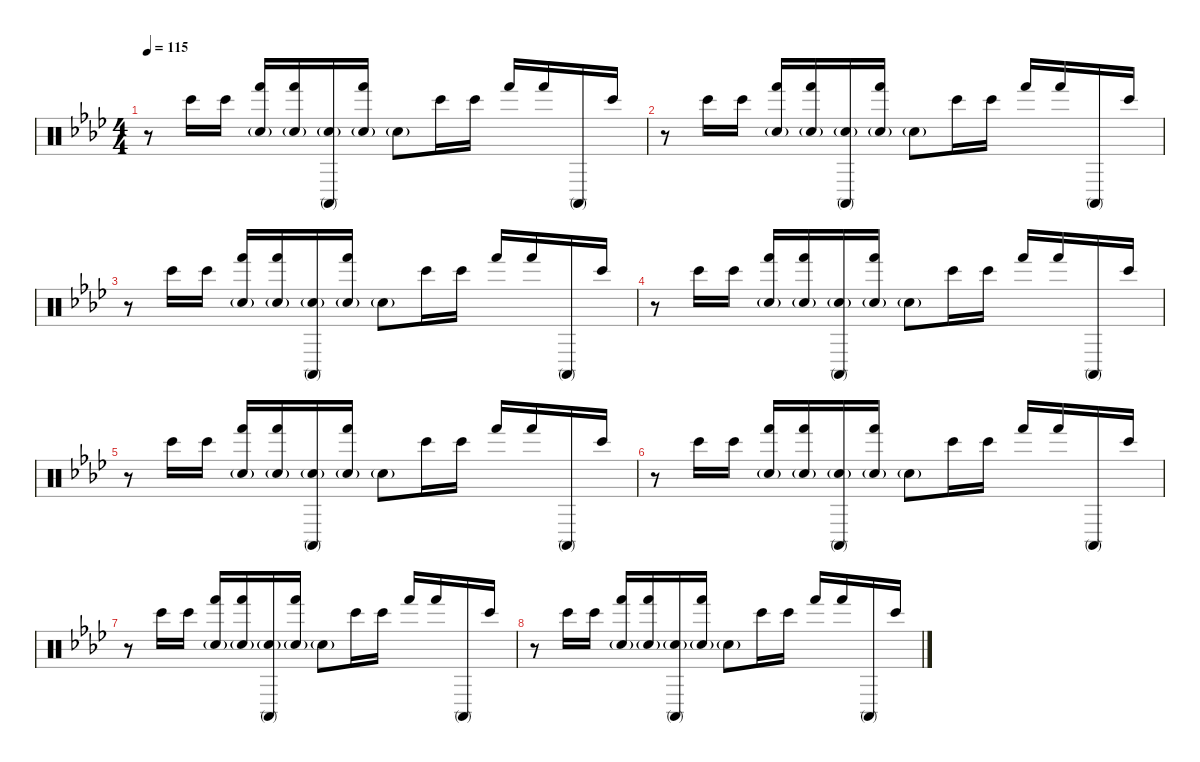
\defaultSystemsLayout 4
\hideDynamics
\bracketExtendMode nobrackets
\singleTrackTrackNamePolicy hidden
\multiTrackTrackNamePolicy hidden
\firstSystemTrackNameMode fullname
\firstSystemTrackNameOrientation horizontal
\otherSystemsTrackNameOrientation horizontal
\track ("Percussion" "drm.") {instrument percussion}
\staff {score}
\articulation defaults
\ts (4 4)
\tempo 115
\clef neutral
\ks ab
r.8{dy p beam Down} "Bongo High (hit)"{acc forcenatural}.16{beam Down} "Bongo High (hit)"{acc forcenatural}.16{beam Down} ("Snare (hit) 2"{g acc forcenatural} "Hand (hit)"{acc forcenatural}).16{beam Up} ("Snare (hit) 2"{g acc forcenatural} "Hand (hit)"{acc forcenatural}).16{beam Up} ("Snare (hit) 2"{g acc forcenatural} "Conga high (mute)"{acc forcenatural}).16{beam Up} ("Snare (hit) 2"{g acc forcenatural} "Hand (hit)"{acc forcenatural}).16{beam Up} "Snare (hit) 2"{g acc forcenatural}.8{dy mf beam Down} "Bongo High (hit)"{acc forcenatural}.16{dy p beam Down} "Bongo High (hit)"{acc forcenatural}.16{beam Down} "Hand (hit)"{acc forcenatural}.16{beam Up} "Hand (hit)"{acc forcenatural}.16{dy pp beam Up} "Conga high (mute)"{acc forcenatural}.16{beam Up} "Bongo High (hit)"{acc forcenatural}.16{dy p beam Up} |
r.8{beam Down} "Bongo High (hit)"{acc forcenatural}.16{beam Down} "Bongo High (hit)"{acc forcenatural}.16{beam Down} ("Snare (hit) 2"{g acc forcenatural} "Hand (hit)"{acc forcenatural}).16{beam Up} ("Snare (hit) 2"{g acc forcenatural} "Hand (hit)"{acc forcenatural}).16{beam Up} ("Snare (hit) 2"{g acc forcenatural} "Conga high (mute)"{acc forcenatural}).16{beam Up} ("Snare (hit) 2"{g acc forcenatural} "Hand (hit)"{acc forcenatural}).16{beam Up} "Snare (hit) 2"{g acc forcenatural}.8{dy mf beam Down} "Bongo High (hit)"{acc forcenatural}.16{dy p beam Down} "Bongo High (hit)"{acc forcenatural}.16{beam Down} "Hand (hit)"{acc forcenatural}.16{beam Up} "Hand (hit)"{acc forcenatural}.16{dy pp beam Up} "Conga high (mute)"{acc forcenatural}.16{beam Up} "Bongo High (hit)"{acc forcenatural}.16{dy p beam Up} |
r.8{beam Down} "Bongo High (hit)"{acc forcenatural}.16{beam Down} "Bongo High (hit)"{acc forcenatural}.16{beam Down} ("Snare (hit) 2"{g acc forcenatural} "Hand (hit)"{acc forcenatural}).16{beam Up} ("Snare (hit) 2"{g acc forcenatural} "Hand (hit)"{acc forcenatural}).16{beam Up} ("Snare (hit) 2"{g acc forcenatural} "Conga high (mute)"{acc forcenatural}).16{beam Up} ("Snare (hit) 2"{g acc forcenatural} "Hand (hit)"{acc forcenatural}).16{beam Up} "Snare (hit) 2"{g acc forcenatural}.8{dy mf beam Down} "Bongo High (hit)"{acc forcenatural}.16{dy p beam Down} "Bongo High (hit)"{acc forcenatural}.16{beam Down} "Hand (hit)"{acc forcenatural}.16{beam Up} "Hand (hit)"{acc forcenatural}.16{dy pp beam Up} "Conga high (mute)"{acc forcenatural}.16{beam Up} "Bongo High (hit)"{acc forcenatural}.16{dy p beam Up} |
r.8{beam Down} "Bongo High (hit)"{acc forcenatural}.16{beam Down} "Bongo High (hit)"{acc forcenatural}.16{beam Down} ("Snare (hit) 2"{g acc forcenatural} "Hand (hit)"{acc forcenatural}).16{beam Up} ("Snare (hit) 2"{g acc forcenatural} "Hand (hit)"{acc forcenatural}).16{beam Up} ("Snare (hit) 2"{g acc forcenatural} "Conga high (mute)"{acc forcenatural}).16{beam Up} ("Snare (hit) 2"{g acc forcenatural} "Hand (hit)"{acc forcenatural}).16{beam Up} "Snare (hit) 2"{g acc forcenatural}.8{dy mf beam Down} "Bongo High (hit)"{acc forcenatural}.16{dy p beam Down} "Bongo High (hit)"{acc forcenatural}.16{beam Down} "Hand (hit)"{acc forcenatural}.16{beam Up} "Hand (hit)"{acc forcenatural}.16{dy pp beam Up} "Conga high (mute)"{acc forcenatural}.16{beam Up} "Bongo High (hit)"{acc forcenatural}.16{dy p beam Up} |
r.8{beam Down} "Bongo High (hit)"{acc forcenatural}.16{beam Down} "Bongo High (hit)"{acc forcenatural}.16{beam Down} ("Snare (hit) 2"{g acc forcenatural} "Hand (hit)"{acc forcenatural}).16{beam Up} ("Snare (hit) 2"{g acc forcenatural} "Hand (hit)"{acc forcenatural}).16{beam Up} ("Snare (hit) 2"{g acc forcenatural} "Conga high (mute)"{acc forcenatural}).16{beam Up} ("Snare (hit) 2"{g acc forcenatural} "Hand (hit)"{acc forcenatural}).16{beam Up} "Snare (hit) 2"{g acc forcenatural}.8{dy mf beam Down} "Bongo High (hit)"{acc forcenatural}.16{dy p beam Down} "Bongo High (hit)"{acc forcenatural}.16{beam Down} "Hand (hit)"{acc forcenatural}.16{beam Up} "Hand (hit)"{acc forcenatural}.16{dy pp beam Up} "Conga high (mute)"{acc forcenatural}.16{beam Up} "Bongo High (hit)"{acc forcenatural}.16{dy p beam Up} |
r.8{beam Down} "Bongo High (hit)"{acc forcenatural}.16{beam Down} "Bongo High (hit)"{acc forcenatural}.16{beam Down} ("Snare (hit) 2"{g acc forcenatural} "Hand (hit)"{acc forcenatural}).16{beam Up} ("Snare (hit) 2"{g acc forcenatural} "Hand (hit)"{acc forcenatural}).16{beam Up} ("Snare (hit) 2"{g acc forcenatural} "Conga high (mute)"{acc forcenatural}).16{beam Up} ("Snare (hit) 2"{g acc forcenatural} "Hand (hit)"{acc forcenatural}).16{beam Up} "Snare (hit) 2"{g acc forcenatural}.8{dy mf beam Down} "Bongo High (hit)"{acc forcenatural}.16{dy p beam Down} "Bongo High (hit)"{acc forcenatural}.16{beam Down} "Hand (hit)"{acc forcenatural}.16{beam Up} "Hand (hit)"{acc forcenatural}.16{dy pp beam Up} "Conga high (mute)"{acc forcenatural}.16{beam Up} "Bongo High (hit)"{acc forcenatural}.16{dy p beam Up} |
r.8{beam Down} "Bongo High (hit)"{acc forcenatural}.16{beam Down} "Bongo High (hit)"{acc forcenatural}.16{beam Down} ("Snare (hit) 2"{g acc forcenatural} "Hand (hit)"{acc forcenatural}).16{beam Up} ("Snare (hit) 2"{g acc forcenatural} "Hand (hit)"{acc forcenatural}).16{beam Up} ("Snare (hit) 2"{g acc forcenatural} "Conga high (mute)"{acc forcenatural}).16{beam Up} ("Snare (hit) 2"{g acc forcenatural} "Hand (hit)"{acc forcenatural}).16{beam Up} "Snare (hit) 2"{g acc forcenatural}.8{dy mf beam Down} "Bongo High (hit)"{acc forcenatural}.16{dy p beam Down} "Bongo High (hit)"{acc forcenatural}.16{beam Down} "Hand (hit)"{acc forcenatural}.16{beam Up} "Hand (hit)"{acc forcenatural}.16{dy pp beam Up} "Conga high (mute)"{acc forcenatural}.16{beam Up} "Bongo High (hit)"{acc forcenatural}.16{dy p beam Up} |
r.8{beam Down} "Bongo High (hit)"{acc forcenatural}.16{beam Down} "Bongo High (hit)"{acc forcenatural}.16{beam Down} ("Snare (hit) 2"{g acc forcenatural} "Hand (hit)"{acc forcenatural}).16{beam Up} ("Snare (hit) 2"{g acc forcenatural} "Hand (hit)"{acc forcenatural}).16{beam Up} ("Snare (hit) 2"{g acc forcenatural} "Conga high (mute)"{acc forcenatural}).16{beam Up} ("Snare (hit) 2"{g acc forcenatural} "Hand (hit)"{acc forcenatural}).16{beam Up} "Snare (hit) 2"{g acc forcenatural}.8{dy mf beam Down} "Bongo High (hit)"{acc forcenatural}.16{dy p beam Down} "Bongo High (hit)"{acc forcenatural}.16{beam Down} "Hand (hit)"{acc forcenatural}.16{beam Up} "Hand (hit)"{acc forcenatural}.16{dy pp beam Up} "Conga high (mute)"{acc forcenatural}.16{beam Up} "Bongo High (hit)"{acc forcenatural}.16{dy p beam Up}
